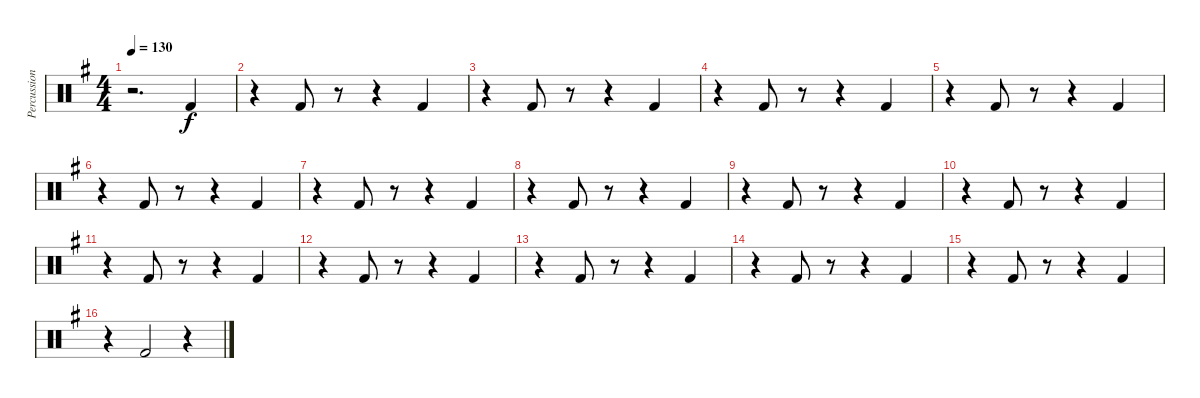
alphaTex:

\track ("Percussion" "Percussion") {instrument percussion}
\staff {score}
\articulation defaults
\ts (4 4)
\tempo 130
\clef neutral
\ks g
r.2{d dy f} "Kick (hit) 2".4 |
r.4 "Kick (hit) 2".8 r.8 r.4 "Kick (hit) 2".4 |
r.4 "Kick (hit) 2".8 r.8 r.4 "Kick (hit) 2".4 |
r.4 "Kick (hit) 2".8 r.8 r.4 "Kick (hit) 2".4 |
r.4 "Kick (hit) 2".8 r.8 r.4 "Kick (hit) 2".4 |
r.4 "Kick (hit) 2".8 r.8 r.4 "Kick (hit) 2".4 |
r.4 "Kick (hit) 2".8 r.8 r.4 "Kick (hit) 2".4 |
r.4 "Kick (hit) 2".8 r.8 r.4 "Kick (hit) 2".4 |
r.4 "Kick (hit) 2".8 r.8 r.4 "Kick (hit) 2".4 |
r.4 "Kick (hit) 2".8 r.8 r.4 "Kick (hit) 2".4 |
r.4 "Kick (hit) 2".8 r.8 r.4 "Kick (hit) 2".4 |
r.4 "Kick (hit) 2".8 r.8 r.4 "Kick (hit) 2".4 |
r.4 "Kick (hit) 2".8 r.8 r.4 "Kick (hit) 2".4 |
r.4 "Kick (hit) 2".8 r.8 r.4 "Kick (hit) 2".4 |
r.4 "Kick (hit) 2".8 r.8 r.4 "Kick (hit) 2".4 |
r.4 "Kick (hit) 2".2 r.4
